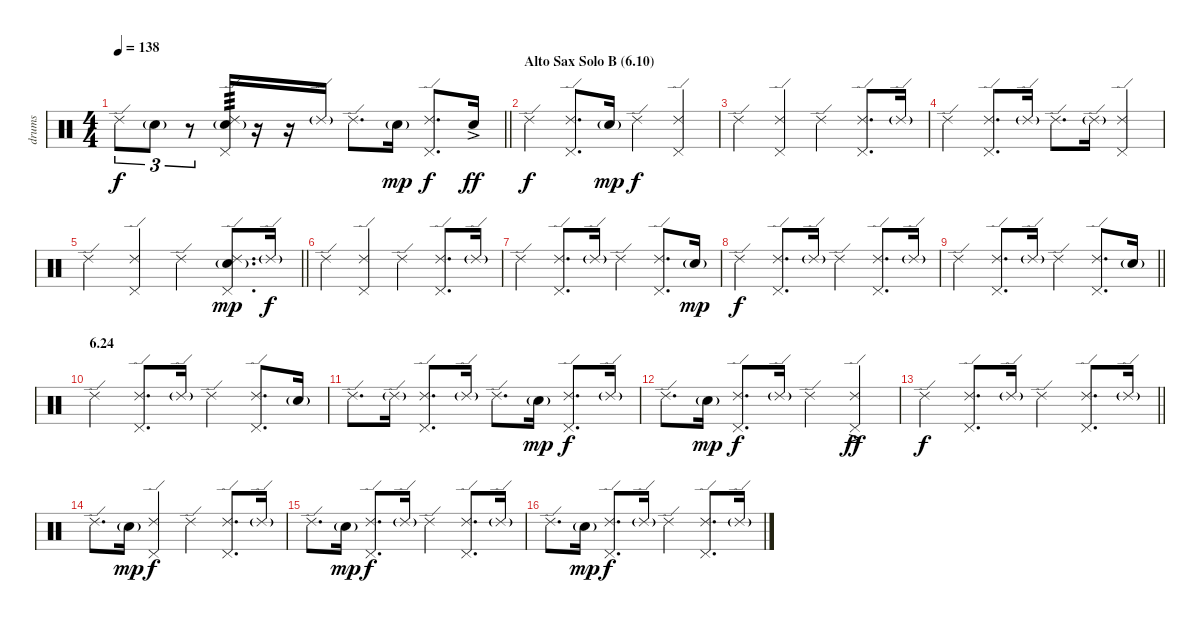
\track ("drums" "drums") {instrument percussion}
\staff {score}
\articulation defaults
\ts (4 4)
\tempo 138
\clef neutral
\barLineRight lightlight
\ks c "Ride (edge) 2".8{tu (3 2) dy f} "Electric Snare (hit)"{g}.8{tu (3 2)}
r.8{tu (3 2)} ("Ride (edge) 2" "Pedal Hi-Hat (hit)" "Electric Snare (hit)"{g}).16{tp 3} r.16 r.16 "Ride (edge) 2"{g}.16 "Ride (edge) 2".8{d} "Electric Snare (hit)"{g}.16{dy mp} ("Ride (edge) 2" "Pedal Hi-Hat (hit)").8{d dy f} "Electric Snare (hit)"{ac}.16{dy ff} |
\section ("" "Alto Sax Solo B (6.10)")
"Ride (edge) 2".4{dy f} ("Ride (edge) 2" "Pedal Hi-Hat (hit)").8{d} "Electric Snare (hit)"{g}.16{dy mp} "Ride (edge) 2".4{dy f} ("Ride (edge) 2" "Pedal Hi-Hat (hit)").4 |
"Ride (edge) 2".4 ("Ride (edge) 2" "Pedal Hi-Hat (hit)").4 "Ride (edge) 2".4 ("Ride (edge) 2" "Pedal Hi-Hat (hit)").8{d} "Ride (edge) 2"{g}.16 |
"Ride (edge) 2".4 ("Ride (edge) 2" "Pedal Hi-Hat (hit)").8{d} "Ride (edge) 2"{g}.16 "Ride (edge) 2".8{d} "Ride (edge) 2"{g}.16 ("Ride (edge) 2" "Pedal Hi-Hat (hit)").4 |
\barLineRight lightlight "Ride (edge) 2".4
("Ride (edge) 2" "Pedal Hi-Hat (hit)").4 "Ride (edge) 2".4 ("Ride (edge) 2" "Pedal Hi-Hat (hit)" "Electric Snare (hit)"{g}).8{d dy mp} "Ride (edge) 2"{g}.16{dy f} |
"Ride (edge) 2".4 ("Ride (edge) 2" "Pedal Hi-Hat (hit)").4 "Ride (edge) 2".4 ("Ride (edge) 2" "Pedal Hi-Hat (hit)").8{d} "Ride (edge) 2"{g}.16 |
"Ride (edge) 2".4 ("Ride (edge) 2" "Pedal Hi-Hat (hit)").8{d} "Ride (edge) 2"{g}.16 "Ride (edge) 2".4 ("Ride (edge) 2" "Pedal Hi-Hat (hit)").8{d} "Electric Snare (hit)"{g}.16{dy mp} |
"Ride (edge) 2".4{dy f} ("Ride (edge) 2" "Pedal Hi-Hat (hit)").8{d} "Ride (edge) 2"{g}.16 "Ride (edge) 2".4 ("Ride (edge) 2" "Pedal Hi-Hat (hit)").8{d} "Ride (edge) 2"{g}.16 |
\barLineRight lightlight "Ride (edge) 2".4
("Ride (edge) 2" "Pedal Hi-Hat (hit)").8{d} "Ride (edge) 2"{g}.16 "Ride (edge) 2".4 ("Ride (edge) 2" "Pedal Hi-Hat (hit)").8{d} "Electric Snare (hit)"{g}.16 |
\section ("" "6.24")
"Ride (edge) 2".4 ("Ride (edge) 2" "Pedal Hi-Hat (hit)").8{d} "Ride (edge) 2"{g}.16 "Ride (edge) 2".4 ("Ride (edge) 2" "Pedal Hi-Hat (hit)").8{d} "Electric Snare (hit)"{g}.16 |
"Ride (edge) 2".8{d} "Ride (edge) 2"{g}.16 ("Ride (edge) 2" "Pedal Hi-Hat (hit)").8{d} "Ride (edge) 2"{g}.16 "Ride (edge) 2".8{d} "Electric Snare (hit)"{g}.16{dy mp} ("Ride (edge) 2" "Pedal Hi-Hat (hit)").8{d dy f} "Ride (edge) 2"{g}.16 |
"Ride (edge) 2".8{d} "Electric Snare (hit)"{g}.16{dy mp} ("Ride (edge) 2" "Pedal Hi-Hat (hit)").8{d dy f} "Ride (edge) 2"{g}.16 "Ride (edge) 2".4 ("Ride (edge) 2"{ac} "Pedal Hi-Hat (hit)").4{dy ff} |
\barLineRight lightlight "Ride (edge) 2".4{dy f}
("Ride (edge) 2" "Pedal Hi-Hat (hit)").8{d} "Ride (edge) 2"{g}.16 "Ride (edge) 2".4 ("Ride (edge) 2" "Pedal Hi-Hat (hit)").8{d} "Ride (edge) 2"{g}.16 |
"Ride (edge) 2".8{d} "Electric Snare (hit)"{g}.16{dy mp} ("Ride (edge) 2" "Pedal Hi-Hat (hit)").4{dy f} "Ride (edge) 2".4 ("Ride (edge) 2" "Pedal Hi-Hat (hit)").8{d} "Ride (edge) 2"{g}.16 |
"Ride (edge) 2".8{d} "Electric Snare (hit)"{g}.16{dy mp} ("Ride (edge) 2" "Pedal Hi-Hat (hit)").8{d dy f} "Ride (edge) 2"{g}.16 "Ride (edge) 2".4 ("Ride (edge) 2" "Pedal Hi-Hat (hit)").8{d} "Ride (edge) 2"{g}.16 |
"Ride (edge) 2".8{d} "Electric Snare (hit)"{g}.16{dy mp} ("Ride (edge) 2" "Pedal Hi-Hat (hit)").8{d dy f} "Ride (edge) 2"{g}.16 "Ride (edge) 2".4 ("Ride (edge) 2" "Pedal Hi-Hat (hit)").8{d} "Ride (edge) 2"{g}.16
